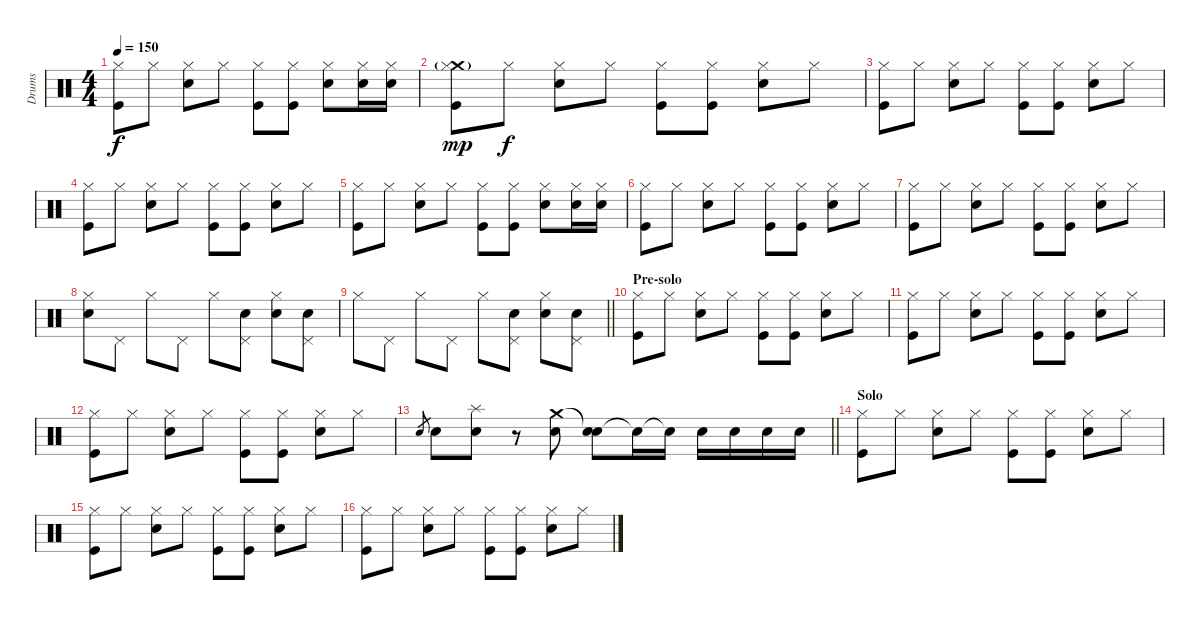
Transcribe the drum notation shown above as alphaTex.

\track ("Drums" "Drums") {instrument percussion}
\staff {score}
\articulation defaults
\ts (4 4)
\tempo 150
\clef neutral
\ks c
("Hi-Hat (closed)" "Kick (hit)").8{dy f} "Hi-Hat (closed)".8 ("Hi-Hat (closed)" "Electric Snare (hit)").8 "Hi-Hat (closed)".8 ("Hi-Hat (closed)" "Kick (hit)").8 ("Hi-Hat (closed)" "Kick (hit)").8 ("Hi-Hat (closed)" "Electric Snare (hit)").8 ("Hi-Hat (closed)" "Electric Snare (hit)").16 ("Hi-Hat (closed)" "Electric Snare (hit)").16 |
("Crash medium (hit)"{g} "Hi-Hat (closed)" "Kick (hit)").8{dy mp} "Hi-Hat (closed)".8{dy f} ("Hi-Hat (closed)" "Electric Snare (hit)").8 "Hi-Hat (closed)".8 ("Hi-Hat (closed)" "Kick (hit)").8 ("Hi-Hat (closed)" "Kick (hit)").8 ("Hi-Hat (closed)" "Electric Snare (hit)").8 "Hi-Hat (closed)".8 |
("Hi-Hat (closed)" "Kick (hit)").8 "Hi-Hat (closed)".8 ("Hi-Hat (closed)" "Electric Snare (hit)").8 "Hi-Hat (closed)".8 ("Hi-Hat (closed)" "Kick (hit)").8 ("Hi-Hat (closed)" "Kick (hit)").8 ("Hi-Hat (closed)" "Electric Snare (hit)").8 "Hi-Hat (closed)".8 |
("Hi-Hat (closed)" "Kick (hit)").8 "Hi-Hat (closed)".8 ("Hi-Hat (closed)" "Electric Snare (hit)").8 "Hi-Hat (closed)".8 ("Hi-Hat (closed)" "Kick (hit)").8 ("Hi-Hat (closed)" "Kick (hit)").8 ("Hi-Hat (closed)" "Electric Snare (hit)").8 "Hi-Hat (closed)".8 |
("Hi-Hat (closed)" "Kick (hit)").8 "Hi-Hat (closed)".8 ("Hi-Hat (closed)" "Electric Snare (hit)").8 "Hi-Hat (closed)".8 ("Hi-Hat (closed)" "Kick (hit)").8 ("Hi-Hat (closed)" "Kick (hit)").8 ("Hi-Hat (closed)" "Electric Snare (hit)").8 ("Hi-Hat (closed)" "Electric Snare (hit)").16 ("Hi-Hat (closed)" "Electric Snare (hit)").16 |
("Hi-Hat (closed)" "Kick (hit)").8 "Hi-Hat (closed)".8 ("Hi-Hat (closed)" "Electric Snare (hit)").8 "Hi-Hat (closed)".8 ("Hi-Hat (closed)" "Kick (hit)").8 ("Hi-Hat (closed)" "Kick (hit)").8 ("Hi-Hat (closed)" "Electric Snare (hit)").8 "Hi-Hat (closed)".8 |
("Hi-Hat (closed)" "Kick (hit)").8 "Hi-Hat (closed)".8 ("Hi-Hat (closed)" "Electric Snare (hit)").8 "Hi-Hat (closed)".8 ("Hi-Hat (closed)" "Kick (hit)").8 ("Hi-Hat (closed)" "Kick (hit)").8 ("Hi-Hat (closed)" "Electric Snare (hit)").8 "Hi-Hat (closed)".8 |
("Hi-Hat (closed)" "Electric Snare (hit)").8 "Pedal Hi-Hat (hit)".8 "Hi-Hat (closed)".8 "Pedal Hi-Hat (hit)".8 "Hi-Hat (closed)".8 ("Pedal Hi-Hat (hit)" "Electric Snare (hit)").8 ("Hi-Hat (closed)" "Electric Snare (hit)").8 ("Pedal Hi-Hat (hit)" "Electric Snare (hit)").8 |
\barLineRight lightlight "Hi-Hat (closed)".8 "Pedal Hi-Hat (hit)".8 "Hi-Hat (closed)".8 "Pedal Hi-Hat (hit)".8 "Hi-Hat (closed)".8
("Pedal Hi-Hat (hit)" "Electric Snare (hit)").8 ("Hi-Hat (closed)" "Electric Snare (hit)").8 ("Pedal Hi-Hat (hit)" "Electric Snare (hit)").8 |
\section ("" "Pre-solo")
("Hi-Hat (closed)" "Kick (hit)").8 "Hi-Hat (closed)".8 ("Hi-Hat (closed)" "Electric Snare (hit)").8 "Hi-Hat (closed)".8 ("Hi-Hat (closed)" "Kick (hit)").8 ("Hi-Hat (closed)" "Kick (hit)").8 ("Hi-Hat (closed)" "Electric Snare (hit)").8 "Hi-Hat (closed)".8 |
("Hi-Hat (closed)" "Kick (hit)").8 "Hi-Hat (closed)".8 ("Hi-Hat (closed)" "Electric Snare (hit)").8 "Hi-Hat (closed)".8 ("Hi-Hat (closed)" "Kick (hit)").8 ("Hi-Hat (closed)" "Kick (hit)").8 ("Hi-Hat (closed)" "Electric Snare (hit)").8 "Hi-Hat (closed)".8 |
("Hi-Hat (closed)" "Kick (hit)").8 "Hi-Hat (closed)".8 ("Hi-Hat (closed)" "Electric Snare (hit)").8 "Hi-Hat (closed)".8 ("Hi-Hat (closed)" "Kick (hit)").8 ("Hi-Hat (closed)" "Kick (hit)").8 ("Hi-Hat (closed)" "Electric Snare (hit)").8 "Hi-Hat (closed)".8 |
\barLineRight lightlight "Electric Snare (hit)".8{gr} "Electric Snare (hit)".8
("Splash (hit)" "Electric Snare (hit)").8 r.8 ("Crash medium (hit)" "Electric Snare (hit)").8 ("Snare (hit)"{t} "Snare (hit)").8 "Snare (hit)"{t}.16 "Snare (hit)"{t}.16 "Electric Snare (hit)".16 "Electric Snare (hit)".16 "Electric Snare (hit)".16 "Electric Snare (hit)".16 |
\section ("" "Solo")
("Hi-Hat (closed)" "Kick (hit)").8 "Hi-Hat (closed)".8 ("Hi-Hat (closed)" "Electric Snare (hit)").8 "Hi-Hat (closed)".8 ("Hi-Hat (closed)" "Kick (hit)").8 ("Hi-Hat (closed)" "Kick (hit)").8 ("Hi-Hat (closed)" "Electric Snare (hit)").8 "Hi-Hat (closed)".8 |
("Hi-Hat (closed)" "Kick (hit)").8 "Hi-Hat (closed)".8 ("Hi-Hat (closed)" "Electric Snare (hit)").8 "Hi-Hat (closed)".8 ("Hi-Hat (closed)" "Kick (hit)").8 ("Hi-Hat (closed)" "Kick (hit)").8 ("Hi-Hat (closed)" "Electric Snare (hit)").8 "Hi-Hat (closed)".8 |
("Hi-Hat (closed)" "Kick (hit)").8 "Hi-Hat (closed)".8 ("Hi-Hat (closed)" "Electric Snare (hit)").8 "Hi-Hat (closed)".8 ("Hi-Hat (closed)" "Kick (hit)").8 ("Hi-Hat (closed)" "Kick (hit)").8 ("Hi-Hat (closed)" "Electric Snare (hit)").8 "Hi-Hat (closed)".8
